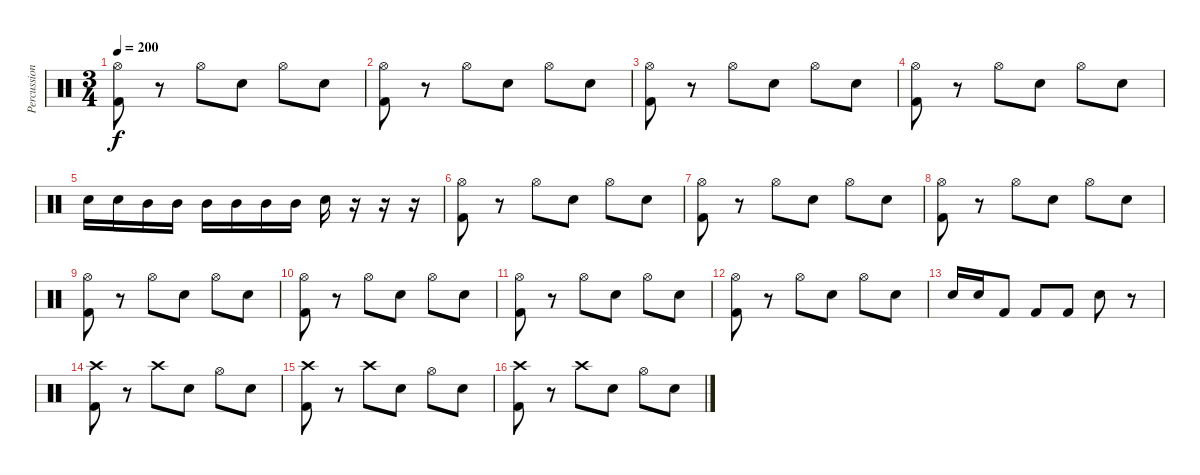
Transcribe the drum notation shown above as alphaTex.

\track ("Percussion" "Percussion") {instrument percussion}
\staff {score}
\articulation defaults
\ts (3 4)
\tempo 200
\clef neutral
\ks c
("Hi-Hat (open)" "Kick (hit) 2").8{dy f} r.8 "Hi-Hat (open)".8 "Snare (hit) 2".8 "Hi-Hat (open)".8 "Snare (hit) 2".8 |
("Hi-Hat (open)" "Kick (hit) 2").8 r.8 "Hi-Hat (open)".8 "Snare (hit) 2".8 "Hi-Hat (open)".8 "Snare (hit) 2".8 |
("Hi-Hat (open)" "Kick (hit) 2").8 r.8 "Hi-Hat (open)".8 "Snare (hit) 2".8 "Hi-Hat (open)".8 "Snare (hit) 2".8 |
("Hi-Hat (open)" "Kick (hit) 2").8 r.8 "Hi-Hat (open)".8 "Snare (hit) 2".8 "Hi-Hat (open)".8 "Snare (hit) 2".8 |
"Snare (hit) 2".16 "Snare (hit) 2".16 "Mid Tom (hit)".16 "Mid Tom (hit)".16 "Mid Tom (hit)".16 "Mid Tom (hit)".16 "Mid Tom (hit)".16 "Mid Tom (hit)".16 "Snare (hit) 2".16 r.16 r.16 r.16 |
("Hi-Hat (open)" "Kick (hit) 2").8 r.8 "Hi-Hat (open)".8 "Snare (hit) 2".8 "Hi-Hat (open)".8 "Snare (hit) 2".8 |
("Hi-Hat (open)" "Kick (hit) 2").8 r.8 "Hi-Hat (open)".8 "Snare (hit) 2".8 "Hi-Hat (open)".8 "Snare (hit) 2".8 |
("Hi-Hat (open)" "Kick (hit) 2").8 r.8 "Hi-Hat (open)".8 "Snare (hit) 2".8 "Hi-Hat (open)".8 "Snare (hit) 2".8 |
("Hi-Hat (open)" "Kick (hit) 2").8 r.8 "Hi-Hat (open)".8 "Snare (hit) 2".8 "Hi-Hat (open)".8 "Snare (hit) 2".8 |
("Hi-Hat (open)" "Kick (hit) 2").8 r.8 "Hi-Hat (open)".8 "Snare (hit) 2".8 "Hi-Hat (open)".8 "Snare (hit) 2".8 |
("Hi-Hat (open)" "Kick (hit) 2").8 r.8 "Hi-Hat (open)".8 "Snare (hit) 2".8 "Hi-Hat (open)".8 "Snare (hit) 2".8 |
("Hi-Hat (open)" "Kick (hit) 2").8 r.8 "Hi-Hat (open)".8 "Snare (hit) 2".8 "Hi-Hat (open)".8 "Snare (hit) 2".8 |
"Snare (hit) 2".16 "Snare (hit) 2".16 "Kick (hit) 2".8 "Kick (hit) 2".8 "Kick (hit) 2".8 "Snare (hit) 2".8 r.8 |
("Crash high (hit)" "Kick (hit) 2").8 r.8 "Crash high (hit)".8 "Snare (hit) 2".8 "Hi-Hat (open)".8 "Snare (hit) 2".8 |
("Crash high (hit)" "Kick (hit) 2").8 r.8 "Crash high (hit)".8 "Snare (hit) 2".8 "Hi-Hat (open)".8 "Snare (hit) 2".8 |
("Crash high (hit)" "Kick (hit) 2").8 r.8 "Crash high (hit)".8 "Snare (hit) 2".8 "Hi-Hat (open)".8 "Snare (hit) 2".8
